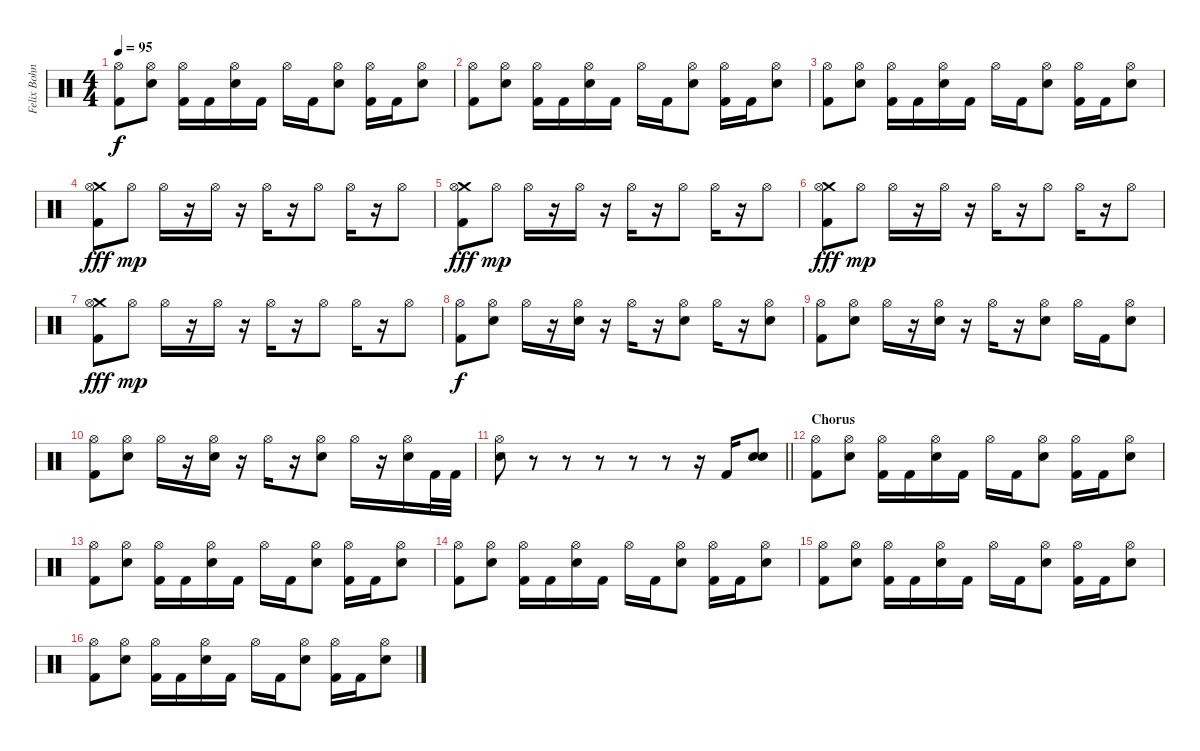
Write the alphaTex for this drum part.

\track ("Felix Bohnke" "Felix Bohn") {instrument percussion}
\staff {score}
\articulation defaults
\ts (4 4)
\tempo 95
\clef neutral
\ks c
("Hi-Hat (open)" "Kick (hit) 2").8{dy f} ("Hi-Hat (open)" "Snare (hit) 2").8 ("Hi-Hat (open)" "Kick (hit) 2").16 "Kick (hit) 2".16 ("Hi-Hat (open)" "Snare (hit) 2").16 "Kick (hit) 2".16 "Hi-Hat (open)".16 "Kick (hit) 2".16 ("Hi-Hat (open)" "Snare (hit) 2").8 ("Hi-Hat (open)" "Kick (hit) 2").16 "Kick (hit) 2".16 ("Hi-Hat (open)" "Snare (hit) 2").8 |
("Hi-Hat (open)" "Kick (hit) 2").8 ("Hi-Hat (open)" "Snare (hit) 2").8 ("Hi-Hat (open)" "Kick (hit) 2").16 "Kick (hit) 2".16 ("Hi-Hat (open)" "Snare (hit) 2").16 "Kick (hit) 2".16 "Hi-Hat (open)".16 "Kick (hit) 2".16 ("Hi-Hat (open)" "Snare (hit) 2").8 ("Hi-Hat (open)" "Kick (hit) 2").16 "Kick (hit) 2".16 ("Hi-Hat (open)" "Snare (hit) 2").8 |
("Hi-Hat (open)" "Kick (hit) 2").8 ("Hi-Hat (open)" "Snare (hit) 2").8 ("Hi-Hat (open)" "Kick (hit) 2").16 "Kick (hit) 2".16 ("Hi-Hat (open)" "Snare (hit) 2").16 "Kick (hit) 2".16 "Hi-Hat (open)".16 "Kick (hit) 2".16 ("Hi-Hat (open)" "Snare (hit) 2").8 ("Hi-Hat (open)" "Kick (hit) 2").16 "Kick (hit) 2".16 ("Hi-Hat (open)" "Snare (hit) 2").8 |
("Crash medium (hit)" "Hi-Hat (open)" "Kick (hit) 2").8{dy fff} "Hi-Hat (open)".8{dy mp} "Hi-Hat (open)".16 r.16 "Hi-Hat (open)".16 r.16 "Hi-Hat (open)".16 r.16 "Hi-Hat (open)".8 "Hi-Hat (open)".16 r.16 "Hi-Hat (open)".8 |
("Crash medium (hit)" "Hi-Hat (open)" "Kick (hit) 2").8{dy fff} "Hi-Hat (open)".8{dy mp} "Hi-Hat (open)".16 r.16 "Hi-Hat (open)".16 r.16 "Hi-Hat (open)".16 r.16 "Hi-Hat (open)".8 "Hi-Hat (open)".16 r.16 "Hi-Hat (open)".8 |
("Crash medium (hit)" "Hi-Hat (open)" "Kick (hit) 2").8{dy fff} "Hi-Hat (open)".8{dy mp} "Hi-Hat (open)".16 r.16 "Hi-Hat (open)".16 r.16 "Hi-Hat (open)".16 r.16 "Hi-Hat (open)".8 "Hi-Hat (open)".16 r.16 "Hi-Hat (open)".8 |
("Crash medium (hit)" "Hi-Hat (open)" "Kick (hit) 2").8{dy fff} "Hi-Hat (open)".8{dy mp} "Hi-Hat (open)".16 r.16 "Hi-Hat (open)".16 r.16 "Hi-Hat (open)".16 r.16 "Hi-Hat (open)".8 "Hi-Hat (open)".16 r.16 "Hi-Hat (open)".8 |
("Hi-Hat (open)" "Kick (hit) 2").8{dy f} ("Hi-Hat (open)" "Snare (hit) 2").8 "Hi-Hat (open)".16 r.16 ("Hi-Hat (open)" "Snare (hit) 2").16 r.16 "Hi-Hat (open)".16 r.16 ("Hi-Hat (open)" "Snare (hit) 2").8 "Hi-Hat (open)".16 r.16 ("Hi-Hat (open)" "Snare (hit) 2").8 |
("Hi-Hat (open)" "Kick (hit) 2").8 ("Hi-Hat (open)" "Snare (hit) 2").8 "Hi-Hat (open)".16 r.16 ("Hi-Hat (open)" "Snare (hit) 2").16 r.16 "Hi-Hat (open)".16 r.16 ("Hi-Hat (open)" "Snare (hit) 2").8 "Hi-Hat (open)".16 "Kick (hit) 2".16 ("Hi-Hat (open)" "Snare (hit) 2").8 |
("Hi-Hat (open)" "Kick (hit) 2").8 ("Hi-Hat (open)" "Snare (hit) 2").8 "Hi-Hat (open)".16 r.16 ("Hi-Hat (open)" "Snare (hit) 2").16 r.16 "Hi-Hat (open)".16 r.16 ("Hi-Hat (open)" "Snare (hit) 2").8 "Hi-Hat (open)".16 r.16 ("Hi-Hat (open)" "Snare (hit) 2").16 "Kick (hit) 2".32 "Kick (hit) 2".32 |
\barLineRight lightlight
("Snare (hit) 2" "Hi-Hat (open)").8 r.8 r.8 r.8 r.8 r.8 r.16 "Kick (hit) 2".16 ("Snare (hit) 2" "Snare (hit) 2").8{bd 120} |
\section ("" "Chorus")
("Hi-Hat (open)" "Kick (hit) 2").8 ("Hi-Hat (open)" "Snare (hit) 2").8 ("Hi-Hat (open)" "Kick (hit) 2").16 "Kick (hit) 2".16 ("Hi-Hat (open)" "Snare (hit) 2").16 "Kick (hit) 2".16 "Hi-Hat (open)".16 "Kick (hit) 2".16 ("Hi-Hat (open)" "Snare (hit) 2").8 ("Hi-Hat (open)" "Kick (hit) 2").16 "Kick (hit) 2".16 ("Hi-Hat (open)" "Snare (hit) 2").8 |
("Hi-Hat (open)" "Kick (hit) 2").8 ("Hi-Hat (open)" "Snare (hit) 2").8 ("Hi-Hat (open)" "Kick (hit) 2").16 "Kick (hit) 2".16 ("Hi-Hat (open)" "Snare (hit) 2").16 "Kick (hit) 2".16 "Hi-Hat (open)".16 "Kick (hit) 2".16 ("Hi-Hat (open)" "Snare (hit) 2").8 ("Hi-Hat (open)" "Kick (hit) 2").16 "Kick (hit) 2".16 ("Hi-Hat (open)" "Snare (hit) 2").8 |
("Hi-Hat (open)" "Kick (hit) 2").8 ("Hi-Hat (open)" "Snare (hit) 2").8 ("Hi-Hat (open)" "Kick (hit) 2").16 "Kick (hit) 2".16 ("Hi-Hat (open)" "Snare (hit) 2").16 "Kick (hit) 2".16 "Hi-Hat (open)".16 "Kick (hit) 2".16 ("Hi-Hat (open)" "Snare (hit) 2").8 ("Hi-Hat (open)" "Kick (hit) 2").16 "Kick (hit) 2".16 ("Hi-Hat (open)" "Snare (hit) 2").8 |
("Hi-Hat (open)" "Kick (hit) 2").8 ("Hi-Hat (open)" "Snare (hit) 2").8 ("Hi-Hat (open)" "Kick (hit) 2").16 "Kick (hit) 2".16 ("Hi-Hat (open)" "Snare (hit) 2").16 "Kick (hit) 2".16 "Hi-Hat (open)".16 "Kick (hit) 2".16 ("Hi-Hat (open)" "Snare (hit) 2").8 ("Hi-Hat (open)" "Kick (hit) 2").16 "Kick (hit) 2".16 ("Hi-Hat (open)" "Snare (hit) 2").8 |
("Hi-Hat (open)" "Kick (hit) 2").8 ("Hi-Hat (open)" "Snare (hit) 2").8 ("Hi-Hat (open)" "Kick (hit) 2").16 "Kick (hit) 2".16 ("Hi-Hat (open)" "Snare (hit) 2").16 "Kick (hit) 2".16 "Hi-Hat (open)".16 "Kick (hit) 2".16 ("Hi-Hat (open)" "Snare (hit) 2").8 ("Hi-Hat (open)" "Kick (hit) 2").16 "Kick (hit) 2".16 ("Hi-Hat (open)" "Snare (hit) 2").8
